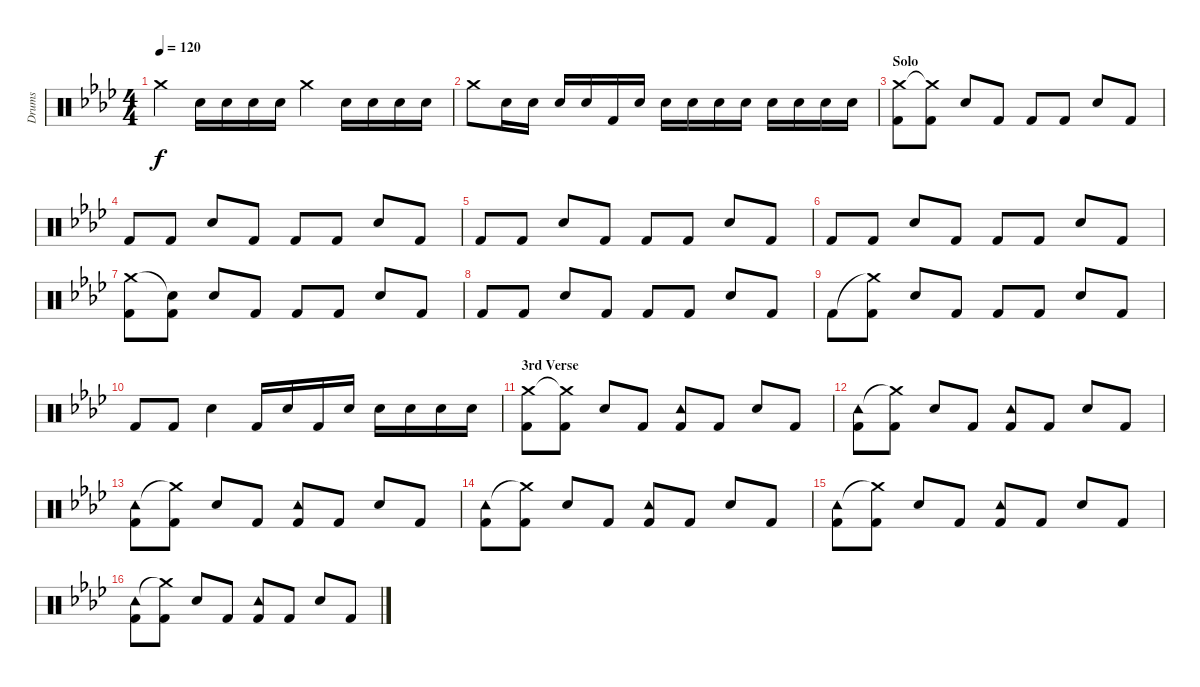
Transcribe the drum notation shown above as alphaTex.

\track ("Drums" "Drums") {instrument percussion}
\staff {score}
\articulation defaults
\ts (4 4)
\tempo 120
\clef neutral
\ks ab "Crash medium (hit)".4{dy f} "Electric Snare (hit)".16 "Electric Snare (hit)".16 "Electric Snare (hit)".16 "Electric Snare (hit)".16 "Crash medium (hit)".4 "Electric Snare (hit)".16 "Electric Snare (hit)".16 "Electric Snare (hit)".16 "Electric Snare (hit)".16
|
"Crash medium (hit)".8 "Electric Snare (hit)".16 "Electric Snare (hit)".16 "Electric Snare (hit)".16 "Electric Snare (hit)".16 "Kick (hit) 2".16 "Electric Snare (hit)".16 "Electric Snare (hit)".16 "Electric Snare (hit)".16 "Electric Snare (hit)".16 "Electric Snare (hit)".16 "Electric Snare (hit)".16 "Electric Snare (hit)".16 "Electric Snare (hit)".16 "Electric Snare (hit)".16 |
\section ("" "Solo")
("Crash medium (hit)" "Kick (hit) 2").8 ("Crash medium (hit)"{t} "Kick (hit) 2").8 "Snare (hit) 2".8 "Kick (hit) 2".8 "Kick (hit) 2".8 "Kick (hit) 2".8 "Snare (hit) 2".8 "Kick (hit) 2".8 |
"Kick (hit) 2".8 "Kick (hit) 2".8 "Snare (hit) 2".8 "Kick (hit) 2".8 "Kick (hit) 2".8 "Kick (hit) 2".8 "Snare (hit) 2".8 "Kick (hit) 2".8 |
"Kick (hit) 2".8 "Kick (hit) 2".8 "Snare (hit) 2".8 "Kick (hit) 2".8 "Kick (hit) 2".8 "Kick (hit) 2".8 "Snare (hit) 2".8 "Kick (hit) 2".8 |
"Kick (hit) 2".8 "Kick (hit) 2".8 "Snare (hit) 2".8 "Kick (hit) 2".8 "Kick (hit) 2".8 "Kick (hit) 2".8 "Snare (hit) 2".8 "Kick (hit) 2".8 |
("Crash medium (hit)" "Kick (hit) 2").8 ("Snare (hit)"{t} "Kick (hit) 2").8 "Snare (hit) 2".8 "Kick (hit) 2".8 "Kick (hit) 2".8 "Kick (hit) 2".8 "Snare (hit) 2".8 "Kick (hit) 2".8 |
"Kick (hit) 2".8 "Kick (hit) 2".8 "Snare (hit) 2".8 "Kick (hit) 2".8 "Kick (hit) 2".8 "Kick (hit) 2".8 "Snare (hit) 2".8 "Kick (hit) 2".8 |
"Kick (hit) 2".8 ("Crash medium (hit)"{t} "Kick (hit) 2").8 "Snare (hit) 2".8 "Kick (hit) 2".8 "Kick (hit) 2".8 "Kick (hit) 2".8 "Snare (hit) 2".8 "Kick (hit) 2".8 |
"Kick (hit) 2".8 "Kick (hit) 2".8 "Snare (hit) 2".4 "Kick (hit) 2".16 "Electric Snare (hit)".16 "Kick (hit) 2".16 "Electric Snare (hit)".16 "Electric Snare (hit)".16 "Electric Snare (hit)".16 "Electric Snare (hit)".16 "Electric Snare (hit)".16 |
\section ("" "3rd Verse")
("Crash medium (hit)" "Kick (hit) 2").8 ("Crash medium (hit)"{t} "Kick (hit) 2").8 "Snare (hit) 2".8 "Kick (hit) 2".8 ("Tambourine (hit)" "Kick (hit) 2").8 "Kick (hit) 2".8 "Snare (hit) 2".8 "Kick (hit) 2".8 |
("Tambourine (hit)" "Kick (hit) 2").8 ("Crash medium (hit)"{t} "Kick (hit) 2").8 "Snare (hit) 2".8 "Kick (hit) 2".8 ("Tambourine (hit)" "Kick (hit) 2").8 "Kick (hit) 2".8 "Snare (hit) 2".8 "Kick (hit) 2".8 |
("Tambourine (hit)" "Kick (hit) 2").8 ("Crash medium (hit)"{t} "Kick (hit) 2").8 "Snare (hit) 2".8 "Kick (hit) 2".8 ("Tambourine (hit)" "Kick (hit) 2").8 "Kick (hit) 2".8 "Snare (hit) 2".8 "Kick (hit) 2".8 |
("Tambourine (hit)" "Kick (hit) 2").8 ("Crash medium (hit)"{t} "Kick (hit) 2").8 "Snare (hit) 2".8 "Kick (hit) 2".8 ("Tambourine (hit)" "Kick (hit) 2").8 "Kick (hit) 2".8 "Snare (hit) 2".8 "Kick (hit) 2".8 |
("Tambourine (hit)" "Kick (hit) 2").8 ("Crash medium (hit)"{t} "Kick (hit) 2").8 "Snare (hit) 2".8 "Kick (hit) 2".8 ("Tambourine (hit)" "Kick (hit) 2").8 "Kick (hit) 2".8 "Snare (hit) 2".8 "Kick (hit) 2".8 |
("Tambourine (hit)" "Kick (hit) 2").8 ("Crash medium (hit)"{t} "Kick (hit) 2").8 "Snare (hit) 2".8 "Kick (hit) 2".8 ("Tambourine (hit)" "Kick (hit) 2").8 "Kick (hit) 2".8 "Snare (hit) 2".8 "Kick (hit) 2".8
